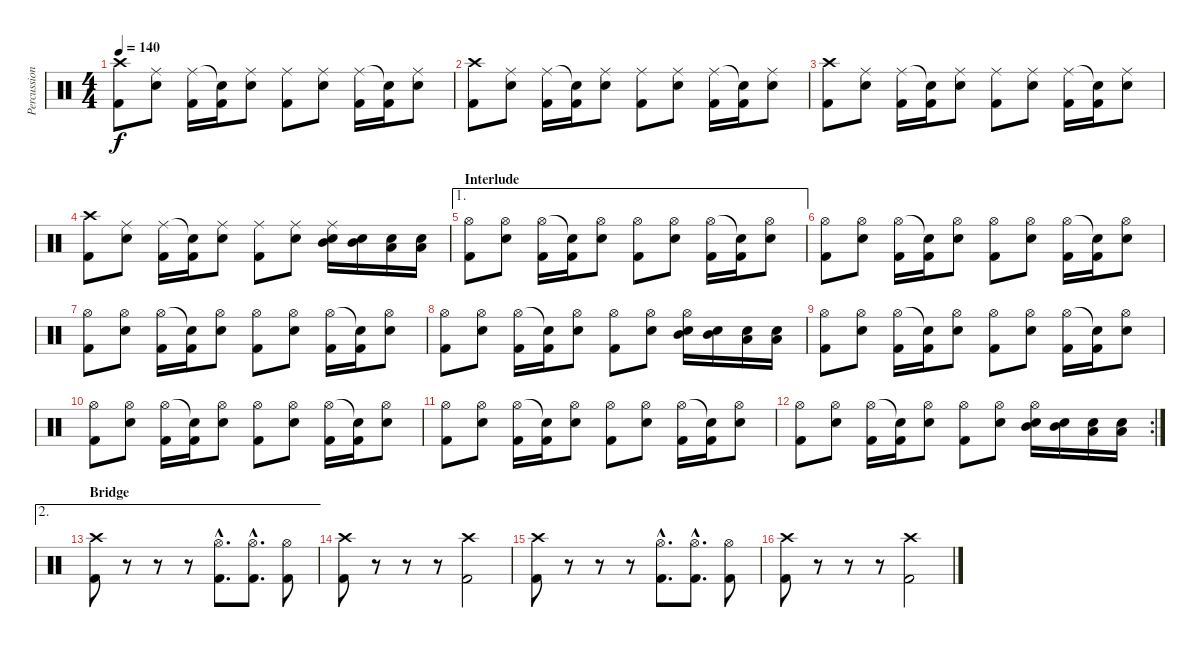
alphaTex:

\track ("Percussion" "Percussion") {instrument percussion}
\staff {score}
\articulation defaults
\ts (4 4)
\tempo 140
\clef neutral
\ks c
("Crash high (hit)" "Kick (hit) 2").8{dy f} ("Ride (middle)" "Electric Snare (hit)").8 ("Ride (middle)" "Kick (hit) 2").16 ("Snare (hit)"{t} "Kick (hit) 2").16 ("Ride (middle)" "Electric Snare (hit)").8 ("Ride (middle)" "Kick (hit) 2").8 ("Ride (middle)" "Electric Snare (hit)").8 ("Ride (middle)" "Kick (hit) 2").16 ("Snare (hit)"{t} "Kick (hit) 2").16 ("Ride (middle)" "Electric Snare (hit)").8 |
("Crash high (hit)" "Kick (hit) 2").8 ("Ride (middle)" "Electric Snare (hit)").8 ("Ride (middle)" "Kick (hit) 2").16 ("Snare (hit)"{t} "Kick (hit) 2").16 ("Ride (middle)" "Electric Snare (hit)").8 ("Ride (middle)" "Kick (hit) 2").8 ("Ride (middle)" "Electric Snare (hit)").8 ("Ride (middle)" "Kick (hit) 2").16 ("Snare (hit)"{t} "Kick (hit) 2").16 ("Ride (middle)" "Electric Snare (hit)").8 |
("Crash high (hit)" "Kick (hit) 2").8 ("Ride (middle)" "Electric Snare (hit)").8 ("Ride (middle)" "Kick (hit) 2").16 ("Snare (hit)"{t} "Kick (hit) 2").16 ("Ride (middle)" "Electric Snare (hit)").8 ("Ride (middle)" "Kick (hit) 2").8 ("Ride (middle)" "Electric Snare (hit)").8 ("Ride (middle)" "Kick (hit) 2").16 ("Snare (hit)"{t} "Kick (hit) 2").16 ("Ride (middle)" "Electric Snare (hit)").8 |
("Crash high (hit)" "Kick (hit) 2").8 ("Ride (middle)" "Electric Snare (hit)").8 ("Ride (middle)" "Kick (hit) 2").16 ("Snare (hit)"{t} "Kick (hit) 2").16 ("Ride (middle)" "Electric Snare (hit)").8 ("Ride (middle)" "Kick (hit) 2").8 ("Ride (middle)" "Electric Snare (hit)").8 ("Ride (middle)" "Electric Snare (hit)" "Mid Tom (hit)").16 ("Electric Snare (hit)" "Mid Tom (hit)").16 ("Electric Snare (hit)" "Low Tom (hit)").16 ("Electric Snare (hit)" "Low Tom (hit)").16 |
\ae 1
\section ("" "Interlude")
("Hi-Hat (open)" "Kick (hit) 2").8 ("Hi-Hat (open)" "Electric Snare (hit)").8 ("Hi-Hat (open)" "Kick (hit) 2").16 ("Snare (hit)"{t} "Kick (hit) 2").16 ("Hi-Hat (open)" "Electric Snare (hit)").8 ("Hi-Hat (open)" "Kick (hit) 2").8 ("Hi-Hat (open)" "Electric Snare (hit)").8 ("Hi-Hat (open)" "Kick (hit) 2").16 ("Snare (hit)"{t} "Kick (hit) 2").16 ("Hi-Hat (open)" "Electric Snare (hit)").8 |
("Hi-Hat (open)" "Kick (hit) 2").8 ("Hi-Hat (open)" "Electric Snare (hit)").8 ("Hi-Hat (open)" "Kick (hit) 2").16 ("Snare (hit)"{t} "Kick (hit) 2").16 ("Hi-Hat (open)" "Electric Snare (hit)").8 ("Hi-Hat (open)" "Kick (hit) 2").8 ("Hi-Hat (open)" "Electric Snare (hit)").8 ("Hi-Hat (open)" "Kick (hit) 2").16 ("Snare (hit)"{t} "Kick (hit) 2").16 ("Hi-Hat (open)" "Electric Snare (hit)").8 |
("Hi-Hat (open)" "Kick (hit) 2").8 ("Hi-Hat (open)" "Electric Snare (hit)").8 ("Hi-Hat (open)" "Kick (hit) 2").16 ("Snare (hit)"{t} "Kick (hit) 2").16 ("Hi-Hat (open)" "Electric Snare (hit)").8 ("Hi-Hat (open)" "Kick (hit) 2").8 ("Hi-Hat (open)" "Electric Snare (hit)").8 ("Hi-Hat (open)" "Kick (hit) 2").16 ("Snare (hit)"{t} "Kick (hit) 2").16 ("Hi-Hat (open)" "Electric Snare (hit)").8 |
("Hi-Hat (open)" "Kick (hit) 2").8 ("Hi-Hat (open)" "Electric Snare (hit)").8 ("Hi-Hat (open)" "Kick (hit) 2").16 ("Snare (hit)"{t} "Kick (hit) 2").16 ("Hi-Hat (open)" "Electric Snare (hit)").8 ("Hi-Hat (open)" "Kick (hit) 2").8 ("Hi-Hat (open)" "Electric Snare (hit)").8 ("Hi-Hat (open)" "Electric Snare (hit)" "Mid Tom (hit)").16 ("Electric Snare (hit)" "Mid Tom (hit)").16 ("Electric Snare (hit)" "Low Tom (hit)").16 ("Electric Snare (hit)" "Low Tom (hit)").16 |
("Hi-Hat (open)" "Kick (hit) 2").8 ("Hi-Hat (open)" "Electric Snare (hit)").8 ("Hi-Hat (open)" "Kick (hit) 2").16 ("Snare (hit)"{t} "Kick (hit) 2").16 ("Hi-Hat (open)" "Electric Snare (hit)").8 ("Hi-Hat (open)" "Kick (hit) 2").8 ("Hi-Hat (open)" "Electric Snare (hit)").8 ("Hi-Hat (open)" "Kick (hit) 2").16 ("Snare (hit)"{t} "Kick (hit) 2").16 ("Hi-Hat (open)" "Electric Snare (hit)").8 |
("Hi-Hat (open)" "Kick (hit) 2").8 ("Hi-Hat (open)" "Electric Snare (hit)").8 ("Hi-Hat (open)" "Kick (hit) 2").16 ("Snare (hit)"{t} "Kick (hit) 2").16 ("Hi-Hat (open)" "Electric Snare (hit)").8 ("Hi-Hat (open)" "Kick (hit) 2").8 ("Hi-Hat (open)" "Electric Snare (hit)").8 ("Hi-Hat (open)" "Kick (hit) 2").16 ("Snare (hit)"{t} "Kick (hit) 2").16 ("Hi-Hat (open)" "Electric Snare (hit)").8 |
("Hi-Hat (open)" "Kick (hit) 2").8 ("Hi-Hat (open)" "Electric Snare (hit)").8 ("Hi-Hat (open)" "Kick (hit) 2").16 ("Snare (hit)"{t} "Kick (hit) 2").16 ("Hi-Hat (open)" "Electric Snare (hit)").8 ("Hi-Hat (open)" "Kick (hit) 2").8 ("Hi-Hat (open)" "Electric Snare (hit)").8 ("Hi-Hat (open)" "Kick (hit) 2").16 ("Snare (hit)"{t} "Kick (hit) 2").16 ("Hi-Hat (open)" "Electric Snare (hit)").8 |
\rc 2
("Hi-Hat (open)" "Kick (hit) 2").8 ("Hi-Hat (open)" "Electric Snare (hit)").8 ("Hi-Hat (open)" "Kick (hit) 2").16 ("Snare (hit)"{t} "Kick (hit) 2").16 ("Hi-Hat (open)" "Electric Snare (hit)").8 ("Hi-Hat (open)" "Kick (hit) 2").8 ("Hi-Hat (open)" "Electric Snare (hit)").8 ("Hi-Hat (open)" "Electric Snare (hit)" "Mid Tom (hit)").16 ("Electric Snare (hit)" "Mid Tom (hit)").16 ("Electric Snare (hit)" "Low Tom (hit)").16 ("Electric Snare (hit)" "Low Tom (hit)").16 |
\ae 2
\section ("" "Bridge")
("Crash high (hit)" "Kick (hit) 2").8 r.8 r.8 r.8 ("Hi-Hat (open)"{hac} "Kick (hit) 2"{hac}).8{d} ("Hi-Hat (open)"{hac} "Kick (hit) 2"{hac}).8{d} ("Hi-Hat (open)" "Kick (hit) 2").8 |
("Crash high (hit)" "Kick (hit) 2").8 r.8 r.8 r.8 ("Crash high (hit)" "Kick (hit) 2").2 |
("Crash high (hit)" "Kick (hit) 2").8 r.8 r.8 r.8 ("Hi-Hat (open)"{hac} "Kick (hit) 2"{hac}).8{d} ("Hi-Hat (open)"{hac} "Kick (hit) 2"{hac}).8{d} ("Hi-Hat (open)" "Kick (hit) 2").8 |
("Crash high (hit)" "Kick (hit) 2").8 r.8 r.8 r.8 ("Crash high (hit)" "Kick (hit) 2").2
